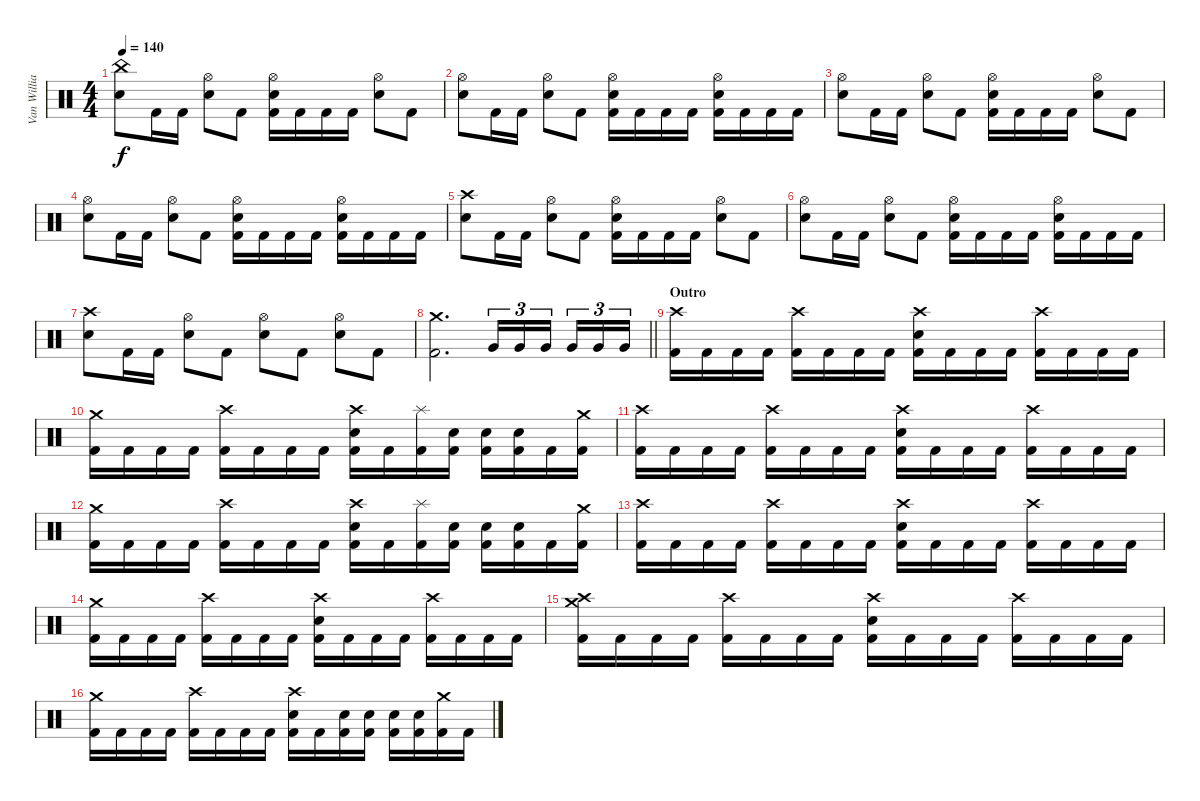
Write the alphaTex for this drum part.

\track ("Van Williams" "Van Willia") {instrument percussion}
\staff {score}
\articulation defaults
\ts (4 4)
\tempo 140
\clef neutral
\ks c
("China (hit)" "Electric Snare (hit)").8{dy f} "Kick (hit) 2".16 "Kick (hit) 2".16 ("Hi-Hat (open)" "Electric Snare (hit)").8 "Kick (hit) 2".8 ("Hi-Hat (open)" "Electric Snare (hit)" "Kick (hit) 2").16 "Kick (hit) 2".16 "Kick (hit) 2".16 "Kick (hit) 2".16 ("Hi-Hat (open)" "Electric Snare (hit)").8 "Kick (hit) 2".8 |
("Hi-Hat (open)" "Electric Snare (hit)").8 "Kick (hit) 2".16 "Kick (hit) 2".16 ("Hi-Hat (open)" "Electric Snare (hit)").8 "Kick (hit) 2".8 ("Hi-Hat (open)" "Electric Snare (hit)" "Kick (hit) 2").16 "Kick (hit) 2".16 "Kick (hit) 2".16 "Kick (hit) 2".16 ("Hi-Hat (open)" "Electric Snare (hit)" "Kick (hit) 2").16 "Kick (hit) 2".16 "Kick (hit) 2".16 "Kick (hit) 2".16 |
("Hi-Hat (open)" "Electric Snare (hit)").8 "Kick (hit) 2".16 "Kick (hit) 2".16 ("Hi-Hat (open)" "Electric Snare (hit)").8 "Kick (hit) 2".8 ("Hi-Hat (open)" "Electric Snare (hit)" "Kick (hit) 2").16 "Kick (hit) 2".16 "Kick (hit) 2".16 "Kick (hit) 2".16 ("Hi-Hat (open)" "Electric Snare (hit)").8 "Kick (hit) 2".8 |
("Hi-Hat (open)" "Electric Snare (hit)").8 "Kick (hit) 2".16 "Kick (hit) 2".16 ("Hi-Hat (open)" "Electric Snare (hit)").8 "Kick (hit) 2".8 ("Hi-Hat (open)" "Electric Snare (hit)" "Kick (hit) 2").16 "Kick (hit) 2".16 "Kick (hit) 2".16 "Kick (hit) 2".16 ("Hi-Hat (open)" "Electric Snare (hit)" "Kick (hit) 2").16 "Kick (hit) 2".16 "Kick (hit) 2".16 "Kick (hit) 2".16 |
("Crash high (hit)" "Electric Snare (hit)").8 "Kick (hit) 2".16 "Kick (hit) 2".16 ("Hi-Hat (open)" "Electric Snare (hit)").8 "Kick (hit) 2".8 ("Hi-Hat (open)" "Electric Snare (hit)" "Kick (hit) 2").16 "Kick (hit) 2".16 "Kick (hit) 2".16 "Kick (hit) 2".16 ("Hi-Hat (open)" "Electric Snare (hit)").8 "Kick (hit) 2".8 |
("Hi-Hat (open)" "Electric Snare (hit)").8 "Kick (hit) 2".16 "Kick (hit) 2".16 ("Hi-Hat (open)" "Electric Snare (hit)").8 "Kick (hit) 2".8 ("Hi-Hat (open)" "Electric Snare (hit)" "Kick (hit) 2").16 "Kick (hit) 2".16 "Kick (hit) 2".16 "Kick (hit) 2".16 ("Hi-Hat (open)" "Electric Snare (hit)" "Kick (hit) 2").16 "Kick (hit) 2".16 "Kick (hit) 2".16 "Kick (hit) 2".16 |
("Crash high (hit)" "Electric Snare (hit)").8 "Kick (hit) 2".16 "Kick (hit) 2".16 ("Hi-Hat (open)" "Electric Snare (hit)").8 "Kick (hit) 2".8 ("Hi-Hat (open)" "Electric Snare (hit)").8 "Kick (hit) 2".8 ("Hi-Hat (open)" "Electric Snare (hit)").8 "Kick (hit) 2".8 |
\barLineRight lightlight
("Crash medium (hit)" "Kick (hit) 2").2{d} "Very Low Tom (hit)".16{tu (3 2)} "Very Low Tom (hit)".16{tu (3 2)} "Very Low Tom (hit)".16{tu (3 2) beam splitsecondary} "Very Low Tom (hit)".16{tu (3 2)} "Very Low Tom (hit)".16{tu (3 2)} "Very Low Tom (hit)".16{tu (3 2)} |
\section ("" "Outro")
("Crash high (hit)" "Kick (hit) 2").16 "Kick (hit) 2".16 "Kick (hit) 2".16 "Kick (hit) 2".16 ("Crash high (hit)" "Kick (hit) 2").16 "Kick (hit) 2".16 "Kick (hit) 2".16 "Kick (hit) 2".16 ("Crash high (hit)" "Electric Snare (hit)" "Kick (hit) 2").16 "Kick (hit) 2".16 "Kick (hit) 2".16 "Kick (hit) 2".16 ("Crash high (hit)" "Kick (hit) 2").16 "Kick (hit) 2".16 "Kick (hit) 2".16 "Kick (hit) 2".16 |
("Crash medium (hit)" "Kick (hit) 2").16 "Kick (hit) 2".16 "Kick (hit) 2".16 "Kick (hit) 2".16 ("Crash high (hit)" "Kick (hit) 2").16 "Kick (hit) 2".16 "Kick (hit) 2".16 "Kick (hit) 2".16 ("Crash high (hit)" "Electric Snare (hit)" "Kick (hit) 2").16 "Kick (hit) 2".16 ("Splash (hit)" "Kick (hit) 2").16 ("Electric Snare (hit)" "Kick (hit) 2").16 ("Electric Snare (hit)" "Kick (hit) 2").16 ("Electric Snare (hit)" "Kick (hit) 2").16 "Kick (hit) 2".16 ("Crash medium (hit)" "Kick (hit) 2").16 |
("Crash high (hit)" "Kick (hit) 2").16 "Kick (hit) 2".16 "Kick (hit) 2".16 "Kick (hit) 2".16 ("Crash high (hit)" "Kick (hit) 2").16 "Kick (hit) 2".16 "Kick (hit) 2".16 "Kick (hit) 2".16 ("Crash high (hit)" "Electric Snare (hit)" "Kick (hit) 2").16 "Kick (hit) 2".16 "Kick (hit) 2".16 "Kick (hit) 2".16 ("Crash high (hit)" "Kick (hit) 2").16 "Kick (hit) 2".16 "Kick (hit) 2".16 "Kick (hit) 2".16 |
("Crash medium (hit)" "Kick (hit) 2").16 "Kick (hit) 2".16 "Kick (hit) 2".16 "Kick (hit) 2".16 ("Crash high (hit)" "Kick (hit) 2").16 "Kick (hit) 2".16 "Kick (hit) 2".16 "Kick (hit) 2".16 ("Crash high (hit)" "Electric Snare (hit)" "Kick (hit) 2").16 "Kick (hit) 2".16 ("Splash (hit)" "Kick (hit) 2").16 ("Electric Snare (hit)" "Kick (hit) 2").16 ("Electric Snare (hit)" "Kick (hit) 2").16 ("Electric Snare (hit)" "Kick (hit) 2").16 "Kick (hit) 2".16 ("Crash medium (hit)" "Kick (hit) 2").16 |
("Crash high (hit)" "Kick (hit) 2").16 "Kick (hit) 2".16 "Kick (hit) 2".16 "Kick (hit) 2".16 ("Crash high (hit)" "Kick (hit) 2").16 "Kick (hit) 2".16 "Kick (hit) 2".16 "Kick (hit) 2".16 ("Crash high (hit)" "Electric Snare (hit)" "Kick (hit) 2").16 "Kick (hit) 2".16 "Kick (hit) 2".16 "Kick (hit) 2".16 ("Crash high (hit)" "Kick (hit) 2").16 "Kick (hit) 2".16 "Kick (hit) 2".16 "Kick (hit) 2".16 |
("Crash medium (hit)" "Kick (hit) 2").16 "Kick (hit) 2".16 "Kick (hit) 2".16 "Kick (hit) 2".16 ("Crash high (hit)" "Kick (hit) 2").16 "Kick (hit) 2".16 "Kick (hit) 2".16 "Kick (hit) 2".16 ("Crash high (hit)" "Electric Snare (hit)" "Kick (hit) 2").16 "Kick (hit) 2".16 "Kick (hit) 2".16 "Kick (hit) 2".16 ("Crash high (hit)" "Kick (hit) 2").16 "Kick (hit) 2".16 "Kick (hit) 2".16 "Kick (hit) 2".16 |
("Crash medium (hit)" "Crash high (hit)" "Kick (hit) 2").16 "Kick (hit) 2".16 "Kick (hit) 2".16 "Kick (hit) 2".16 ("Crash high (hit)" "Kick (hit) 2").16 "Kick (hit) 2".16 "Kick (hit) 2".16 "Kick (hit) 2".16 ("Crash high (hit)" "Electric Snare (hit)" "Kick (hit) 2").16 "Kick (hit) 2".16 "Kick (hit) 2".16 "Kick (hit) 2".16 ("Crash high (hit)" "Kick (hit) 2").16 "Kick (hit) 2".16 "Kick (hit) 2".16 "Kick (hit) 2".16 |
("Crash medium (hit)" "Kick (hit) 2").16 "Kick (hit) 2".16 "Kick (hit) 2".16 "Kick (hit) 2".16 ("Crash high (hit)" "Kick (hit) 2").16 "Kick (hit) 2".16 "Kick (hit) 2".16 "Kick (hit) 2".16 ("Crash high (hit)" "Electric Snare (hit)" "Kick (hit) 2").16 "Kick (hit) 2".16 ("Electric Snare (hit)" "Kick (hit) 2").16 ("Electric Snare (hit)" "Kick (hit) 2").16 ("Electric Snare (hit)" "Kick (hit) 2").16 ("Electric Snare (hit)" "Kick (hit) 2").16 ("Crash medium (hit)" "Kick (hit) 2").16 "Kick (hit) 2".16
